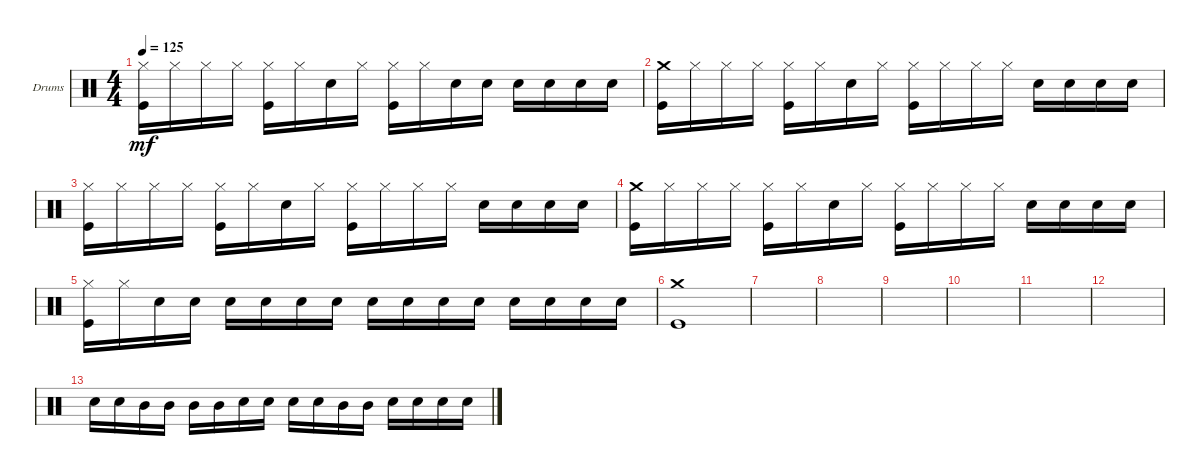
\defaultSystemsLayout 4
\bracketExtendMode groupsimilarinstruments
\firstSystemTrackNameOrientation horizontal
\otherSystemsTrackNameOrientation horizontal
\track ("Drumkit" "Drums") {instrument percussion}
\staff {score}
\articulation defaults
\ts (4 4)
\tempo 125
\clef neutral
\scale
0.333333
\ks c
("Kick (hit)" "Hi-Hat (closed)").16{dy mf} "Hi-Hat (closed)".16 "Hi-Hat (closed)".16 "Hi-Hat (closed)".16 ("Kick (hit)" "Hi-Hat (closed)").16 "Hi-Hat (closed)".16 "Snare (hit) 2".16 "Hi-Hat (closed)".16 ("Hi-Hat (closed)" "Kick (hit)").16 "Hi-Hat (closed)".16 "Snare (hit) 2".16 "Snare (hit) 2".16 "Snare (hit) 2".16 "Snare (hit) 2".16 "Snare (hit) 2".16 "Snare (hit) 2".16 |
\scale
0.333333 ("Kick (hit)" "Crash medium (hit)").16 "Hi-Hat (closed)".16 "Hi-Hat (closed)".16 "Hi-Hat (closed)".16 ("Kick (hit)" "Hi-Hat (closed)").16 "Hi-Hat (closed)".16 "Snare (hit) 2".16 "Hi-Hat (closed)".16 ("Hi-Hat (closed)" "Kick (hit)").16 "Hi-Hat (closed)".16 "Hi-Hat (closed)".16 "Hi-Hat (closed)".16 "Snare (hit) 2".16 "Snare (hit) 2".16 "Snare (hit) 2".16 "Snare (hit) 2".16 |
\scale
0.333333 ("Kick (hit)" "Hi-Hat (closed)").16 "Hi-Hat (closed)".16 "Hi-Hat (closed)".16 "Hi-Hat (closed)".16 ("Kick (hit)" "Hi-Hat (closed)").16 "Hi-Hat (closed)".16 "Snare (hit) 2".16 "Hi-Hat (closed)".16 ("Hi-Hat (closed)" "Kick (hit)").16 "Hi-Hat (closed)".16 "Hi-Hat (closed)".16 "Hi-Hat (closed)".16 "Snare (hit) 2".16 "Snare (hit) 2".16 "Snare (hit) 2".16 "Snare (hit) 2".16 |
\scale
0.333333 ("Kick (hit)" "Crash medium (hit)").16 "Hi-Hat (closed)".16 "Hi-Hat (closed)".16 "Hi-Hat (closed)".16 ("Kick (hit)" "Hi-Hat (closed)").16 "Hi-Hat (closed)".16 "Snare (hit) 2".16 "Hi-Hat (closed)".16 ("Hi-Hat (closed)" "Kick (hit)").16 "Hi-Hat (closed)".16 "Hi-Hat (closed)".16 "Hi-Hat (closed)".16 "Snare (hit) 2".16 "Snare (hit) 2".16 "Snare (hit) 2".16 "Snare (hit) 2".16 |
\scale
0.333333 ("Hi-Hat (closed)" "Kick (hit)").16 "Hi-Hat (closed)".16 "Snare (hit) 2".16 "Snare (hit) 2".16 "Snare (hit) 2".16 "Snare (hit) 2".16 "Snare (hit) 2".16 "Snare (hit) 2".16 "Snare (hit) 2".16 "Snare (hit) 2".16 "Snare (hit) 2".16 "Snare (hit) 2".16 "Snare (hit) 2".16 "Snare (hit) 2".16 "Snare (hit) 2".16 "Snare (hit) 2".16 |
\scale
0.333333 ("Crash medium (hit)" "Kick (hit)").1 |
\scale
0.333333 |
\scale
0.333333 |
\scale
0.333333 |
\scale
0.333333 |
\scale
0.333333 |
\scale
0.333333 |
\scale
0.333333 "Snare (hit) 2".16 "Snare (hit) 2".16 "Mid Tom (hit)".16 "Mid Tom (hit)".16 "Mid Tom (hit)".16 "Mid Tom (hit)".16 "Snare (hit) 2".16 "Snare (hit) 2".16 "Snare (hit) 2".16 "Snare (hit) 2".16 "Mid Tom (hit)".16 "Mid Tom (hit)".16 "Snare (hit) 2".16 "Snare (hit) 2".16 "Snare (hit) 2".16 "Snare (hit) 2".16
